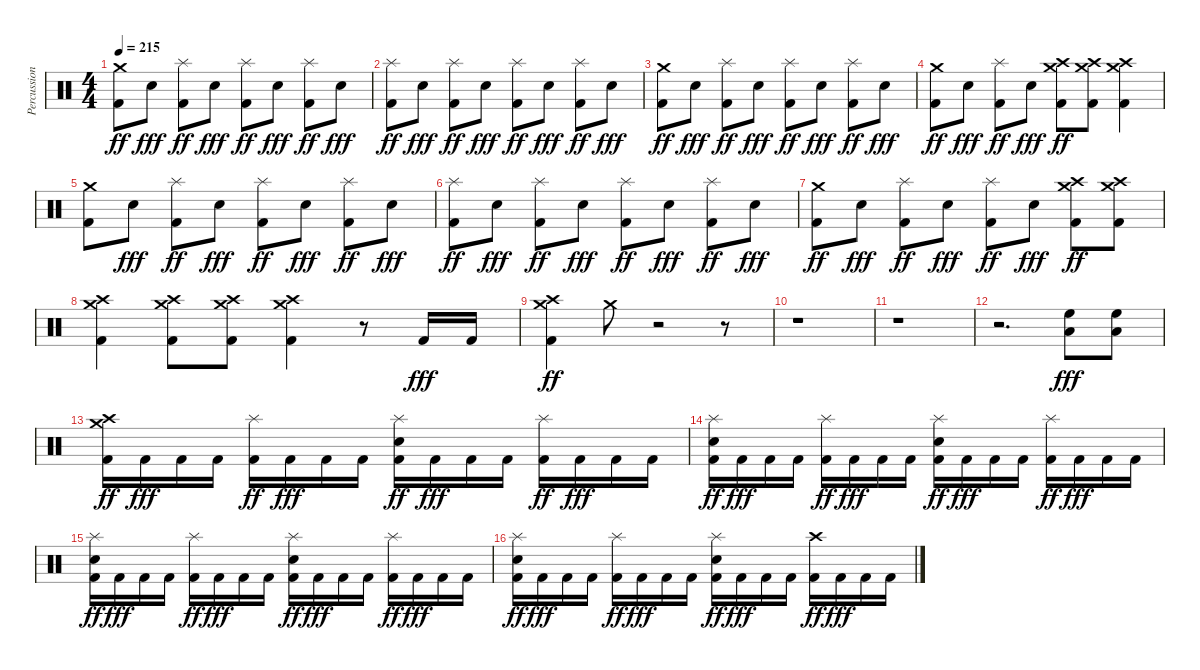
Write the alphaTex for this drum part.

\track ("Percussion" "Percussion") {instrument percussion}
\staff {score}
\articulation defaults
\ts (4 4)
\tempo 215
\clef neutral
\ks c
("Kick (hit) 2" "Crash medium (hit)").8{dy ff} "Electric Snare (hit)".8{dy fff} ("Kick (hit) 2" "Splash (hit)").8{dy ff} "Electric Snare (hit)".8{dy fff} ("Kick (hit) 2" "Splash (hit)").8{dy ff} "Electric Snare (hit)".8{dy fff} ("Kick (hit) 2" "Splash (hit)").8{dy ff} "Electric Snare (hit)".8{dy fff} |
("Kick (hit) 2" "Splash (hit)").8{dy ff} "Electric Snare (hit)".8{dy fff} ("Kick (hit) 2" "Splash (hit)").8{dy ff} "Electric Snare (hit)".8{dy fff} ("Kick (hit) 2" "Splash (hit)").8{dy ff} "Electric Snare (hit)".8{dy fff} ("Kick (hit) 2" "Splash (hit)").8{dy ff} "Electric Snare (hit)".8{dy fff} |
("Kick (hit) 2" "Crash medium (hit)").8{dy ff} "Electric Snare (hit)".8{dy fff} ("Kick (hit) 2" "Splash (hit)").8{dy ff} "Electric Snare (hit)".8{dy fff} ("Kick (hit) 2" "Splash (hit)").8{dy ff} "Electric Snare (hit)".8{dy fff} ("Kick (hit) 2" "Splash (hit)").8{dy ff} "Electric Snare (hit)".8{dy fff} |
("Kick (hit) 2" "Crash medium (hit)").8{dy ff} "Electric Snare (hit)".8{dy fff} ("Kick (hit) 2" "Splash (hit)").8{dy ff} "Electric Snare (hit)".8{dy fff} ("Kick (hit) 2" "Crash medium (hit)" "Crash high (hit)").8{dy ff} ("Kick (hit) 2" "Crash medium (hit)" "Crash high (hit)").8 ("Kick (hit) 2" "Crash medium (hit)" "Crash high (hit)").4 |
("Kick (hit) 2" "Crash medium (hit)").8 "Electric Snare (hit)".8{dy fff} ("Kick (hit) 2" "Splash (hit)").8{dy ff} "Electric Snare (hit)".8{dy fff} ("Kick (hit) 2" "Splash (hit)").8{dy ff} "Electric Snare (hit)".8{dy fff} ("Kick (hit) 2" "Splash (hit)").8{dy ff} "Electric Snare (hit)".8{dy fff} |
("Kick (hit) 2" "Splash (hit)").8{dy ff} "Electric Snare (hit)".8{dy fff} ("Kick (hit) 2" "Splash (hit)").8{dy ff} "Electric Snare (hit)".8{dy fff} ("Kick (hit) 2" "Splash (hit)").8{dy ff} "Electric Snare (hit)".8{dy fff} ("Kick (hit) 2" "Splash (hit)").8{dy ff} "Electric Snare (hit)".8{dy fff} |
("Kick (hit) 2" "Crash medium (hit)").8{dy ff} "Electric Snare (hit)".8{dy fff} ("Kick (hit) 2" "Splash (hit)").8{dy ff} "Electric Snare (hit)".8{dy fff} ("Kick (hit) 2" "Splash (hit)").8{dy ff} "Electric Snare (hit)".8{dy fff} ("Kick (hit) 2" "Crash medium (hit)" "Crash high (hit)").8{dy ff} ("Kick (hit) 2" "Crash medium (hit)" "Crash high (hit)").8 |
("Kick (hit) 2" "Crash medium (hit)" "Crash high (hit)").4 ("Kick (hit) 2" "Crash medium (hit)" "Crash high (hit)").8 ("Kick (hit) 2" "Crash medium (hit)" "Crash high (hit)").8 ("Kick (hit) 2" "Crash medium (hit)" "Crash high (hit)").4 r.8 "Kick (hit) 2".16{dy fff} "Kick (hit) 2".16 |
("Kick (hit) 2" "Crash high (hit)" "Crash medium (hit)").4{dy ff} "Crash medium (hit)".8{volume 0} r.2 r.8 |
r.1 |
r.1 |
r.2{d} ("High Floor Tom (hit)" "Low Tom (hit)").8{dy fff volume 16} ("High Floor Tom (hit)" "Low Tom (hit)").8 |
("Kick (hit) 2" "Crash high (hit)" "Crash medium (hit)").16{dy ff} "Kick (hit) 2".16{dy fff} "Kick (hit) 2".16 "Kick (hit) 2".16 ("Kick (hit) 2" "Splash (hit)").16{dy ff} "Kick (hit) 2".16{dy fff} "Kick (hit) 2".16 "Kick (hit) 2".16 ("Kick (hit) 2" "Electric Snare (hit)" "Splash (hit)").16{dy ff} "Kick (hit) 2".16{dy fff} "Kick (hit) 2".16 "Kick (hit) 2".16 ("Kick (hit) 2" "Splash (hit)").16{dy ff} "Kick (hit) 2".16{dy fff} "Kick (hit) 2".16 "Kick (hit) 2".16 |
("Kick (hit) 2" "Electric Snare (hit)" "Splash (hit)").16{dy ff} "Kick (hit) 2".16{dy fff} "Kick (hit) 2".16 "Kick (hit) 2".16 ("Kick (hit) 2" "Splash (hit)").16{dy ff} "Kick (hit) 2".16{dy fff} "Kick (hit) 2".16 "Kick (hit) 2".16 ("Kick (hit) 2" "Electric Snare (hit)" "Splash (hit)").16{dy ff} "Kick (hit) 2".16{dy fff} "Kick (hit) 2".16 "Kick (hit) 2".16 ("Kick (hit) 2" "Splash (hit)").16{dy ff} "Kick (hit) 2".16{dy fff} "Kick (hit) 2".16 "Kick (hit) 2".16 |
("Kick (hit) 2" "Electric Snare (hit)" "Splash (hit)").16{dy ff} "Kick (hit) 2".16{dy fff} "Kick (hit) 2".16 "Kick (hit) 2".16 ("Kick (hit) 2" "Splash (hit)").16{dy ff} "Kick (hit) 2".16{dy fff} "Kick (hit) 2".16 "Kick (hit) 2".16 ("Kick (hit) 2" "Electric Snare (hit)" "Splash (hit)").16{dy ff} "Kick (hit) 2".16{dy fff} "Kick (hit) 2".16 "Kick (hit) 2".16 ("Kick (hit) 2" "Splash (hit)").16{dy ff} "Kick (hit) 2".16{dy fff} "Kick (hit) 2".16 "Kick (hit) 2".16 |
("Kick (hit) 2" "Electric Snare (hit)" "Splash (hit)").16{dy ff} "Kick (hit) 2".16{dy fff} "Kick (hit) 2".16 "Kick (hit) 2".16 ("Kick (hit) 2" "Splash (hit)").16{dy ff} "Kick (hit) 2".16{dy fff} "Kick (hit) 2".16 "Kick (hit) 2".16 ("Kick (hit) 2" "Electric Snare (hit)" "Splash (hit)").16{dy ff} "Kick (hit) 2".16{dy fff} "Kick (hit) 2".16 "Kick (hit) 2".16 ("Kick (hit) 2" "Crash high (hit)").16{dy ff} "Kick (hit) 2".16{dy fff} "Kick (hit) 2".16 "Kick (hit) 2".16
